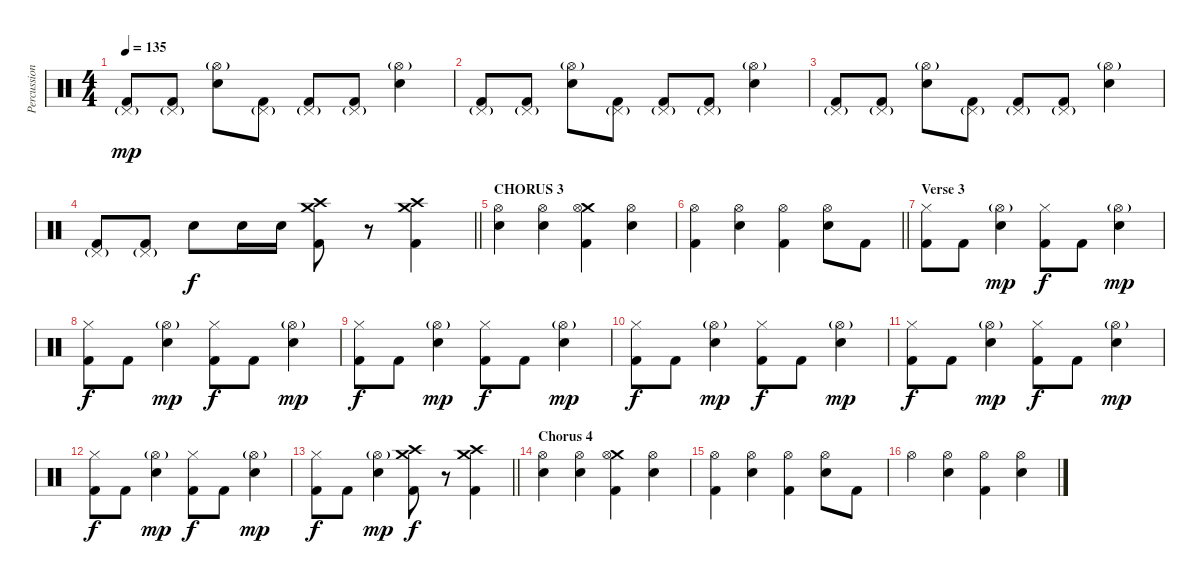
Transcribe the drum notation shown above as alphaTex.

\track ("Percussion" "Percussion") {instrument percussion}
\staff {score}
\articulation defaults
\ts (4 4)
\tempo 135
\clef neutral
\ks c
("Pedal Hi-Hat (hit)"{g} "Kick (hit) 2").8{dy mp} ("Pedal Hi-Hat (hit)"{g} "Kick (hit) 2").8 ("Hi-Hat (open)"{g} "Electric Snare (hit)").8 ("Pedal Hi-Hat (hit)"{g} "Kick (hit) 2").8 ("Pedal Hi-Hat (hit)"{g} "Kick (hit) 2").8 ("Pedal Hi-Hat (hit)"{g} "Kick (hit) 2").8 ("Hi-Hat (open)"{g} "Electric Snare (hit)").4 |
("Pedal Hi-Hat (hit)"{g} "Kick (hit) 2").8 ("Pedal Hi-Hat (hit)"{g} "Kick (hit) 2").8 ("Hi-Hat (open)"{g} "Electric Snare (hit)").8 ("Pedal Hi-Hat (hit)"{g} "Kick (hit) 2").8 ("Pedal Hi-Hat (hit)"{g} "Kick (hit) 2").8 ("Pedal Hi-Hat (hit)"{g} "Kick (hit) 2").8 ("Hi-Hat (open)"{g} "Electric Snare (hit)").4 |
("Pedal Hi-Hat (hit)"{g} "Kick (hit) 2").8 ("Pedal Hi-Hat (hit)"{g} "Kick (hit) 2").8 ("Hi-Hat (open)"{g} "Electric Snare (hit)").8 ("Pedal Hi-Hat (hit)"{g} "Kick (hit) 2").8 ("Pedal Hi-Hat (hit)"{g} "Kick (hit) 2").8 ("Pedal Hi-Hat (hit)"{g} "Kick (hit) 2").8 ("Hi-Hat (open)"{g} "Electric Snare (hit)").4 |
\barLineRight lightlight
("Pedal Hi-Hat (hit)"{g} "Kick (hit) 2").8 ("Pedal Hi-Hat (hit)"{g} "Kick (hit) 2").8 "Electric Snare (hit)".8{dy f} "Electric Snare (hit)".16 "Electric Snare (hit)".16 ("Crash high (hit)" "Crash medium (hit)" "Kick (hit) 2").8 r.8 ("Crash high (hit)" "Crash medium (hit)" "Kick (hit) 2").4 |
\section ("" "CHORUS 3")
("Hi-Hat (open)" "Electric Snare (hit)").4 ("Hi-Hat (open)" "Electric Snare (hit)").4 ("Crash medium (hit)" "Hi-Hat (open)" "Kick (hit) 2").4 ("Hi-Hat (open)" "Electric Snare (hit)").4 |
\barLineRight lightlight
("Hi-Hat (open)" "Kick (hit) 2").4 ("Hi-Hat (open)" "Electric Snare (hit)").4 ("Hi-Hat (open)" "Kick (hit) 2").4 ("Hi-Hat (open)" "Electric Snare (hit)").8 "Kick (hit) 2".8 |
\section ("" "Verse 3")
("Hi-Hat (closed)" "Kick (hit) 2").8 "Kick (hit) 2".8 ("Hi-Hat (open)"{g} "Electric Snare (hit)").4{dy mp} ("Hi-Hat (closed)" "Kick (hit) 2").8{dy f} "Kick (hit) 2".8 ("Hi-Hat (open)"{g} "Electric Snare (hit)").4{dy mp} |
("Hi-Hat (closed)" "Kick (hit) 2").8{dy f} "Kick (hit) 2".8 ("Hi-Hat (open)"{g} "Electric Snare (hit)").4{dy mp} ("Hi-Hat (closed)" "Kick (hit) 2").8{dy f} "Kick (hit) 2".8 ("Hi-Hat (open)"{g} "Electric Snare (hit)").4{dy mp} |
("Hi-Hat (closed)" "Kick (hit) 2").8{dy f} "Kick (hit) 2".8 ("Hi-Hat (open)"{g} "Electric Snare (hit)").4{dy mp} ("Hi-Hat (closed)" "Kick (hit) 2").8{dy f} "Kick (hit) 2".8 ("Hi-Hat (open)"{g} "Electric Snare (hit)").4{dy mp} |
("Hi-Hat (closed)" "Kick (hit) 2").8{dy f} "Kick (hit) 2".8 ("Hi-Hat (open)"{g} "Electric Snare (hit)").4{dy mp} ("Hi-Hat (closed)" "Kick (hit) 2").8{dy f} "Kick (hit) 2".8 ("Hi-Hat (open)"{g} "Electric Snare (hit)").4{dy mp} |
("Hi-Hat (closed)" "Kick (hit) 2").8{dy f} "Kick (hit) 2".8 ("Hi-Hat (open)"{g} "Electric Snare (hit)").4{dy mp} ("Hi-Hat (closed)" "Kick (hit) 2").8{dy f} "Kick (hit) 2".8 ("Hi-Hat (open)"{g} "Electric Snare (hit)").4{dy mp} |
("Hi-Hat (closed)" "Kick (hit) 2").8{dy f} "Kick (hit) 2".8 ("Hi-Hat (open)"{g} "Electric Snare (hit)").4{dy mp} ("Hi-Hat (closed)" "Kick (hit) 2").8{dy f} "Kick (hit) 2".8 ("Hi-Hat (open)"{g} "Electric Snare (hit)").4{dy mp} |
\barLineRight lightlight
("Hi-Hat (closed)" "Kick (hit) 2").8{dy f} "Kick (hit) 2".8 ("Hi-Hat (open)"{g} "Electric Snare (hit)").4{dy mp} ("Crash high (hit)" "Crash medium (hit)" "Kick (hit) 2").8{dy f} r.8 ("Crash high (hit)" "Crash medium (hit)" "Kick (hit) 2").4 |
\section ("" "Chorus 4")
("Hi-Hat (open)" "Electric Snare (hit)").4 ("Hi-Hat (open)" "Electric Snare (hit)").4 ("Crash medium (hit)" "Hi-Hat (open)" "Kick (hit) 2").4 ("Hi-Hat (open)" "Electric Snare (hit)").4 |
("Hi-Hat (open)" "Kick (hit) 2").4 ("Hi-Hat (open)" "Electric Snare (hit)").4 ("Hi-Hat (open)" "Kick (hit) 2").4 ("Hi-Hat (open)" "Electric Snare (hit)").8 "Kick (hit) 2".8 |
"Hi-Hat (open)".4 ("Hi-Hat (open)" "Electric Snare (hit)").4 ("Hi-Hat (open)" "Kick (hit) 2").4 ("Hi-Hat (open)" "Electric Snare (hit)").4
